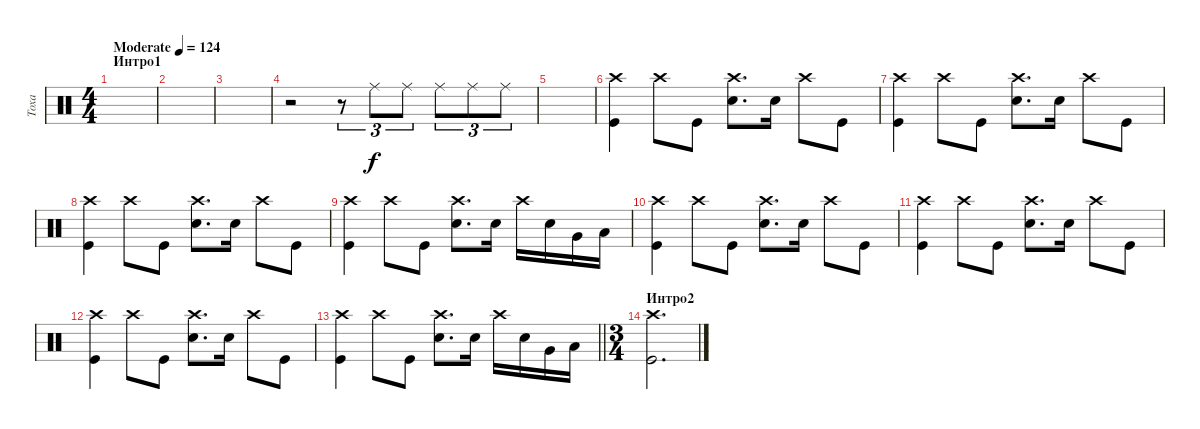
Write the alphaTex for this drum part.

\track ("Тоха" "Тоха") {instrument percussion}
\staff {score}
\articulation defaults
\ts (4 4)
\section ("" "Интро1")
\tempo (124 "Moderate")
\clef neutral
\ks c
|
|
|
r.2 r.8{tu (3 2)} "Ride (middle)".8{tu (3 2)} "Ride (middle)".8{tu (3 2)} "Ride (middle)".8{tu (3 2)} "Ride (middle)".8{tu (3 2)} "Ride (middle)".8{tu (3 2)} |
|
("Kick (hit)" "Crash high (hit)").4 "Crash high (hit)".8 "Kick (hit)".8 ("Snare (hit) 2" "Crash high (hit)").8{d} "Snare (hit) 2".16 "Crash high (hit)".8 "Kick (hit)".8 |
("Kick (hit)" "Crash high (hit)").4 "Crash high (hit)".8 "Kick (hit)".8 ("Snare (hit) 2" "Crash high (hit)").8{d} "Snare (hit) 2".16 "Crash high (hit)".8 "Kick (hit)".8 |
("Kick (hit)" "Crash high (hit)").4 "Crash high (hit)".8 "Kick (hit)".8 ("Snare (hit) 2" "Crash high (hit)").8{d} "Snare (hit) 2".16 "Crash high (hit)".8 "Kick (hit)".8 |
("Kick (hit)" "Crash high (hit)").4 "Crash high (hit)".8 "Kick (hit)".8 ("Snare (hit) 2" "Crash high (hit)").8{d} "Snare (hit) 2".16 "Crash high (hit)".16 "Snare (hit) 2".16 "Very Low Tom (hit)".16 "Low Floor Tom (hit)".16 |
("Kick (hit)" "Crash high (hit)").4 "Crash high (hit)".8 "Kick (hit)".8 ("Snare (hit) 2" "Crash high (hit)").8{d} "Snare (hit) 2".16 "Crash high (hit)".8 "Kick (hit)".8 |
("Kick (hit)" "Crash high (hit)").4 "Crash high (hit)".8 "Kick (hit)".8 ("Snare (hit) 2" "Crash high (hit)").8{d} "Snare (hit) 2".16 "Crash high (hit)".8 "Kick (hit)".8 |
("Kick (hit)" "Crash high (hit)").4 "Crash high (hit)".8 "Kick (hit)".8 ("Snare (hit) 2" "Crash high (hit)").8{d} "Snare (hit) 2".16 "Crash high (hit)".8 "Kick (hit)".8 |
\barLineRight lightlight
("Kick (hit)" "Crash high (hit)").4 "Crash high (hit)".8 "Kick (hit)".8 ("Snare (hit) 2" "Crash high (hit)").8{d} "Snare (hit) 2".16 "Crash high (hit)".16 "Snare (hit) 2".16 "Very Low Tom (hit)".16 "Low Floor Tom (hit)".16 |
\ts (3 4)
\section ("" "Интро2")
("Kick (hit)" "Crash high (hit)").2{d}
